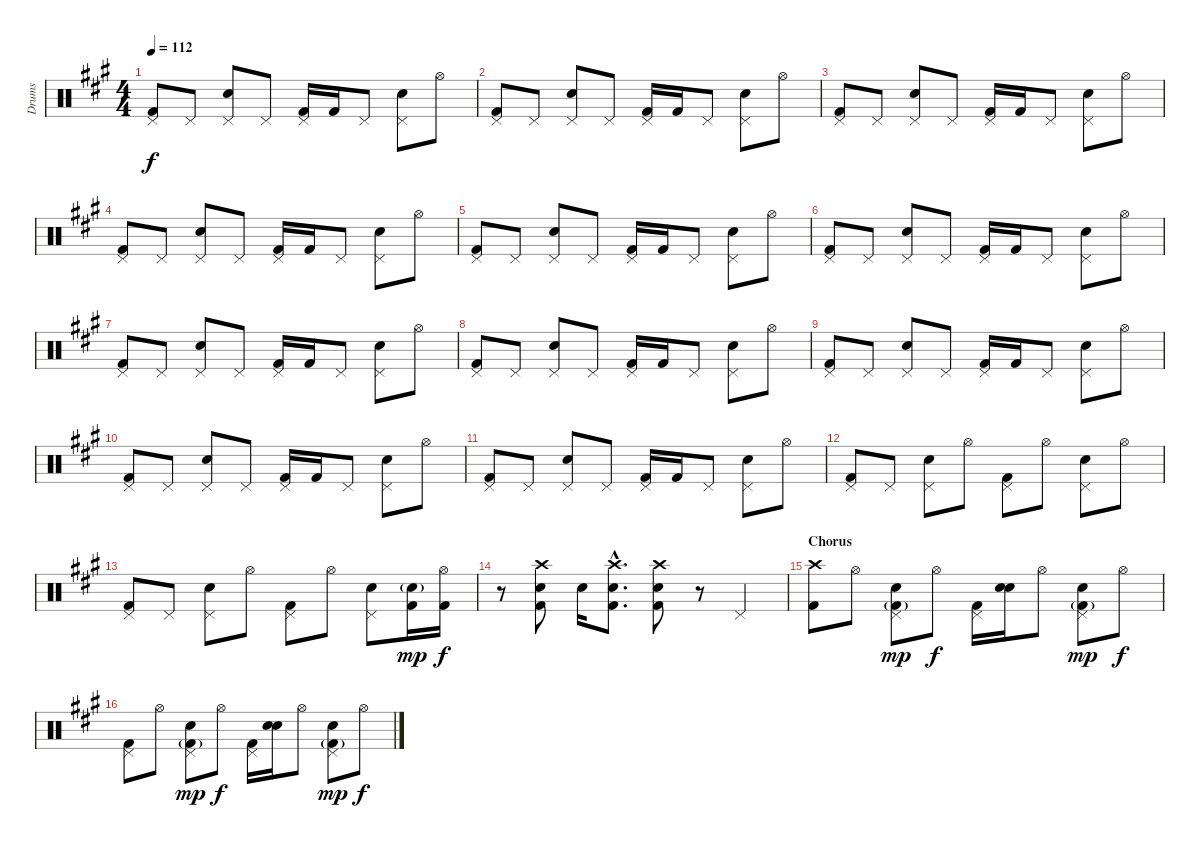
\track ("Drums" "Drums") {instrument percussion}
\staff {score}
\articulation defaults
\ts (4 4)
\tempo 112
\clef neutral
\ks a
("Pedal Hi-Hat (hit)" "Kick (hit) 2").8{dy f} "Pedal Hi-Hat (hit)".8 ("Pedal Hi-Hat (hit)" "Electric Snare (hit)").8 "Pedal Hi-Hat (hit)".8 ("Pedal Hi-Hat (hit)" "Kick (hit) 2").16 "Kick (hit) 2".16 "Pedal Hi-Hat (hit)".8 ("Pedal Hi-Hat (hit)" "Electric Snare (hit)").8 "Hi-Hat (open)".8 |
("Pedal Hi-Hat (hit)" "Kick (hit) 2").8 "Pedal Hi-Hat (hit)".8 ("Pedal Hi-Hat (hit)" "Electric Snare (hit)").8 "Pedal Hi-Hat (hit)".8 ("Pedal Hi-Hat (hit)" "Kick (hit) 2").16 "Kick (hit) 2".16 "Pedal Hi-Hat (hit)".8 ("Pedal Hi-Hat (hit)" "Electric Snare (hit)").8 "Hi-Hat (open)".8 |
("Pedal Hi-Hat (hit)" "Kick (hit) 2").8 "Pedal Hi-Hat (hit)".8 ("Pedal Hi-Hat (hit)" "Electric Snare (hit)").8 "Pedal Hi-Hat (hit)".8 ("Pedal Hi-Hat (hit)" "Kick (hit) 2").16 "Kick (hit) 2".16 "Pedal Hi-Hat (hit)".8 ("Pedal Hi-Hat (hit)" "Electric Snare (hit)").8 "Hi-Hat (open)".8 |
("Pedal Hi-Hat (hit)" "Kick (hit) 2").8 "Pedal Hi-Hat (hit)".8 ("Pedal Hi-Hat (hit)" "Electric Snare (hit)").8 "Pedal Hi-Hat (hit)".8 ("Pedal Hi-Hat (hit)" "Kick (hit) 2").16 "Kick (hit) 2".16 "Pedal Hi-Hat (hit)".8 ("Pedal Hi-Hat (hit)" "Electric Snare (hit)").8 "Hi-Hat (open)".8 |
("Pedal Hi-Hat (hit)" "Kick (hit) 2").8 "Pedal Hi-Hat (hit)".8 ("Pedal Hi-Hat (hit)" "Electric Snare (hit)").8 "Pedal Hi-Hat (hit)".8 ("Pedal Hi-Hat (hit)" "Kick (hit) 2").16 "Kick (hit) 2".16 "Pedal Hi-Hat (hit)".8 ("Pedal Hi-Hat (hit)" "Electric Snare (hit)").8 "Hi-Hat (open)".8 |
("Pedal Hi-Hat (hit)" "Kick (hit) 2").8 "Pedal Hi-Hat (hit)".8 ("Pedal Hi-Hat (hit)" "Electric Snare (hit)").8 "Pedal Hi-Hat (hit)".8 ("Pedal Hi-Hat (hit)" "Kick (hit) 2").16 "Kick (hit) 2".16 "Pedal Hi-Hat (hit)".8 ("Pedal Hi-Hat (hit)" "Electric Snare (hit)").8 "Hi-Hat (open)".8 |
("Pedal Hi-Hat (hit)" "Kick (hit) 2").8 "Pedal Hi-Hat (hit)".8 ("Pedal Hi-Hat (hit)" "Electric Snare (hit)").8 "Pedal Hi-Hat (hit)".8 ("Pedal Hi-Hat (hit)" "Kick (hit) 2").16 "Kick (hit) 2".16 "Pedal Hi-Hat (hit)".8 ("Pedal Hi-Hat (hit)" "Electric Snare (hit)").8 "Hi-Hat (open)".8 |
("Pedal Hi-Hat (hit)" "Kick (hit) 2").8 "Pedal Hi-Hat (hit)".8 ("Pedal Hi-Hat (hit)" "Electric Snare (hit)").8 "Pedal Hi-Hat (hit)".8 ("Pedal Hi-Hat (hit)" "Kick (hit) 2").16 "Kick (hit) 2".16 "Pedal Hi-Hat (hit)".8 ("Pedal Hi-Hat (hit)" "Electric Snare (hit)").8 "Hi-Hat (open)".8 |
("Pedal Hi-Hat (hit)" "Kick (hit) 2").8 "Pedal Hi-Hat (hit)".8 ("Pedal Hi-Hat (hit)" "Electric Snare (hit)").8 "Pedal Hi-Hat (hit)".8 ("Pedal Hi-Hat (hit)" "Kick (hit) 2").16 "Kick (hit) 2".16 "Pedal Hi-Hat (hit)".8 ("Pedal Hi-Hat (hit)" "Electric Snare (hit)").8 "Hi-Hat (open)".8 |
("Pedal Hi-Hat (hit)" "Kick (hit) 2").8 "Pedal Hi-Hat (hit)".8 ("Pedal Hi-Hat (hit)" "Electric Snare (hit)").8 "Pedal Hi-Hat (hit)".8 ("Pedal Hi-Hat (hit)" "Kick (hit) 2").16 "Kick (hit) 2".16 "Pedal Hi-Hat (hit)".8 ("Pedal Hi-Hat (hit)" "Electric Snare (hit)").8 "Hi-Hat (open)".8 |
("Pedal Hi-Hat (hit)" "Kick (hit) 2").8 "Pedal Hi-Hat (hit)".8 ("Pedal Hi-Hat (hit)" "Electric Snare (hit)").8 "Pedal Hi-Hat (hit)".8 ("Pedal Hi-Hat (hit)" "Kick (hit) 2").16 "Kick (hit) 2".16 "Pedal Hi-Hat (hit)".8 ("Pedal Hi-Hat (hit)" "Electric Snare (hit)").8 "Hi-Hat (open)".8 |
("Pedal Hi-Hat (hit)" "Kick (hit) 2").8 "Pedal Hi-Hat (hit)".8 ("Pedal Hi-Hat (hit)" "Electric Snare (hit)").8 "Hi-Hat (open)".8 ("Pedal Hi-Hat (hit)" "Kick (hit) 2").8 "Hi-Hat (open)".8 ("Pedal Hi-Hat (hit)" "Electric Snare (hit)").8 "Hi-Hat (open)".8 |
("Pedal Hi-Hat (hit)" "Kick (hit) 2").8 "Pedal Hi-Hat (hit)".8 ("Pedal Hi-Hat (hit)" "Electric Snare (hit)").8 "Hi-Hat (open)".8 ("Pedal Hi-Hat (hit)" "Kick (hit) 2").8 "Hi-Hat (open)".8 ("Pedal Hi-Hat (hit)" "Electric Snare (hit)").8 ("Electric Snare (hit)"{g} "Kick (hit) 2").16{dy mp} ("Hi-Hat (open)" "Kick (hit) 2").16{dy f} |
r.8 ("Crash high (hit)" "Electric Snare (hit)" "Kick (hit) 2").8 "Snare (hit)"{x}.16 ("Crash high (hit)"{hac} "Electric Snare (hit)"{hac} "Kick (hit) 2"{hac}).8{d} ("Crash high (hit)" "Electric Snare (hit)" "Kick (hit) 2").8 r.8 "Pedal Hi-Hat (hit)".4 |
\section ("" "Chorus")
("Crash high (hit)" "Kick (hit) 2").8 "Hi-Hat (open)".8 ("Pedal Hi-Hat (hit)" "Electric Snare (hit)" "Kick (hit) 2"{g}).8{dy mp} "Hi-Hat (open)".8{dy f} ("Pedal Hi-Hat (hit)" "Kick (hit) 2").16 ("Snare (hit)"{x} "Electric Snare (hit)").16 "Hi-Hat (open)".8 ("Pedal Hi-Hat (hit)" "Electric Snare (hit)" "Kick (hit) 2"{g}).8{dy mp} "Hi-Hat (open)".8{dy f} |
("Pedal Hi-Hat (hit)" "Kick (hit) 2").8 "Hi-Hat (open)".8 ("Pedal Hi-Hat (hit)" "Electric Snare (hit)" "Kick (hit) 2"{g}).8{dy mp} "Hi-Hat (open)".8{dy f} ("Pedal Hi-Hat (hit)" "Kick (hit) 2").16 ("Snare (hit)"{x} "Electric Snare (hit)").16 "Hi-Hat (open)".8 ("Pedal Hi-Hat (hit)" "Electric Snare (hit)" "Kick (hit) 2"{g}).8{dy mp} "Hi-Hat (open)".8{dy f}
